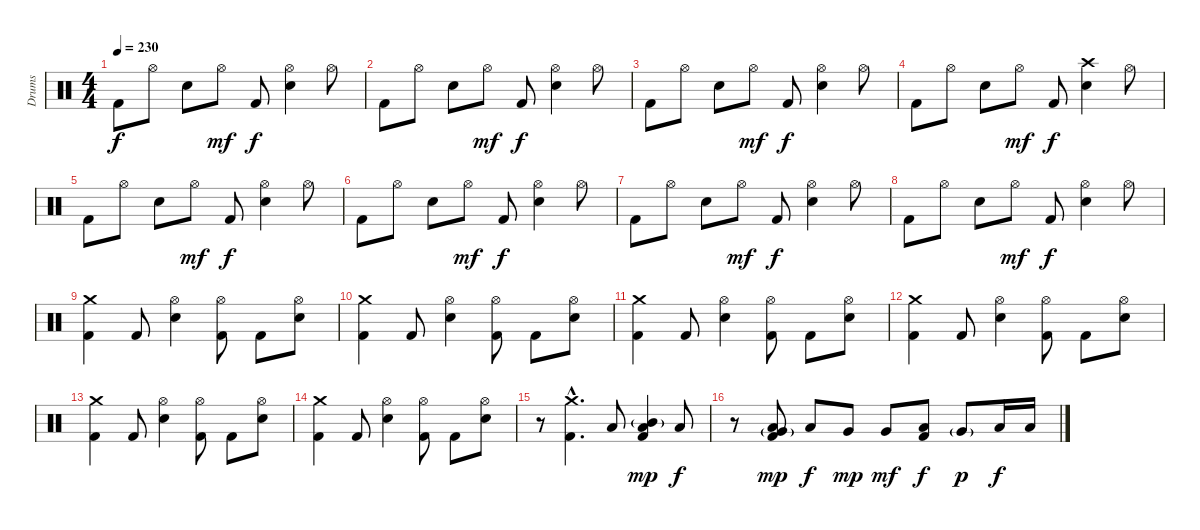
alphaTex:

\track ("Drums" "Drums") {instrument percussion}
\staff {score}
\articulation defaults
\ts (4 4)
\tempo 230
\clef neutral
\ks c "Kick (hit) 2".8{dy f} "Hi-Hat (open)".8 "Electric Snare (hit)".8 "Hi-Hat (open)".8{dy mf} "Kick (hit) 2".8{dy f}
("Hi-Hat (open)" "Electric Snare (hit)").4 "Hi-Hat (open)".8 |
"Kick (hit) 2".8 "Hi-Hat (open)".8 "Electric Snare (hit)".8 "Hi-Hat (open)".8{dy mf} "Kick (hit) 2".8{dy f} ("Hi-Hat (open)" "Electric Snare (hit)").4 "Hi-Hat (open)".8 |
"Kick (hit) 2".8 "Hi-Hat (open)".8 "Electric Snare (hit)".8 "Hi-Hat (open)".8{dy mf} "Kick (hit) 2".8{dy f} ("Hi-Hat (open)" "Electric Snare (hit)").4 "Hi-Hat (open)".8 |
"Kick (hit) 2".8 "Hi-Hat (open)".8 "Electric Snare (hit)".8 "Hi-Hat (open)".8{dy mf} "Kick (hit) 2".8{dy f} ("Crash high (hit)" "Electric Snare (hit)").4 "Hi-Hat (open)".8 |
"Kick (hit) 2".8 "Hi-Hat (open)".8 "Electric Snare (hit)".8 "Hi-Hat (open)".8{dy mf} "Kick (hit) 2".8{dy f} ("Hi-Hat (open)" "Electric Snare (hit)").4 "Hi-Hat (open)".8 |
"Kick (hit) 2".8 "Hi-Hat (open)".8 "Electric Snare (hit)".8 "Hi-Hat (open)".8{dy mf} "Kick (hit) 2".8{dy f} ("Hi-Hat (open)" "Electric Snare (hit)").4 "Hi-Hat (open)".8 |
"Kick (hit) 2".8 "Hi-Hat (open)".8 "Electric Snare (hit)".8 "Hi-Hat (open)".8{dy mf} "Kick (hit) 2".8{dy f} ("Hi-Hat (open)" "Electric Snare (hit)").4 "Hi-Hat (open)".8 |
"Kick (hit) 2".8 "Hi-Hat (open)".8 "Electric Snare (hit)".8 "Hi-Hat (open)".8{dy mf} "Kick (hit) 2".8{dy f} ("Hi-Hat (open)" "Electric Snare (hit)").4 "Hi-Hat (open)".8 |
("Crash medium (hit)" "Kick (hit) 2").4 "Kick (hit) 2".8 ("Hi-Hat (open)" "Electric Snare (hit)").4 ("Hi-Hat (open)" "Kick (hit) 2").8 "Kick (hit) 2".8 ("Hi-Hat (open)" "Electric Snare (hit)").8 |
("Crash medium (hit)" "Kick (hit) 2").4 "Kick (hit) 2".8 ("Hi-Hat (open)" "Electric Snare (hit)").4 ("Hi-Hat (open)" "Kick (hit) 2").8 "Kick (hit) 2".8 ("Hi-Hat (open)" "Electric Snare (hit)").8 |
("Crash medium (hit)" "Kick (hit) 2").4 "Kick (hit) 2".8 ("Hi-Hat (open)" "Electric Snare (hit)").4 ("Hi-Hat (open)" "Kick (hit) 2").8 "Kick (hit) 2".8 ("Hi-Hat (open)" "Electric Snare (hit)").8 |
("Crash medium (hit)" "Kick (hit) 2").4 "Kick (hit) 2".8 ("Hi-Hat (open)" "Electric Snare (hit)").4 ("Hi-Hat (open)" "Kick (hit) 2").8 "Kick (hit) 2".8 ("Hi-Hat (open)" "Electric Snare (hit)").8 |
("Crash medium (hit)" "Kick (hit) 2").4 "Kick (hit) 2".8 ("Hi-Hat (open)" "Electric Snare (hit)").4 ("Hi-Hat (open)" "Kick (hit) 2").8 "Kick (hit) 2".8 ("Hi-Hat (open)" "Electric Snare (hit)").8 |
("Crash medium (hit)" "Kick (hit) 2").4 "Kick (hit) 2".8 ("Hi-Hat (open)" "Electric Snare (hit)").4 ("Hi-Hat (open)" "Kick (hit) 2").8 "Kick (hit) 2".8 ("Hi-Hat (open)" "Electric Snare (hit)").8 |
r.8 ("Crash medium (hit)"{hac} "Kick (hit) 2"{hac}).4{d} "Low Tom (hit)".8 ("Mid Tom (hit)"{g} "Low Tom (hit)" "Kick (hit) 2").4{dy mp} "Low Tom (hit)".8{dy f} |
r.8 ("Very Low Tom (hit)"{g} "Low Tom (hit)" "Kick (hit) 2").8{dy mp} "Low Tom (hit)".8{dy f} "Very Low Tom (hit)".8{dy mp} "Very Low Tom (hit)".8{dy mf} ("Low Tom (hit)" "Kick (hit) 2").8{dy f} "Very Low Tom (hit)"{g}.8{dy p} "Low Floor Tom (hit)".16{dy f} "Low Floor Tom (hit)".16
